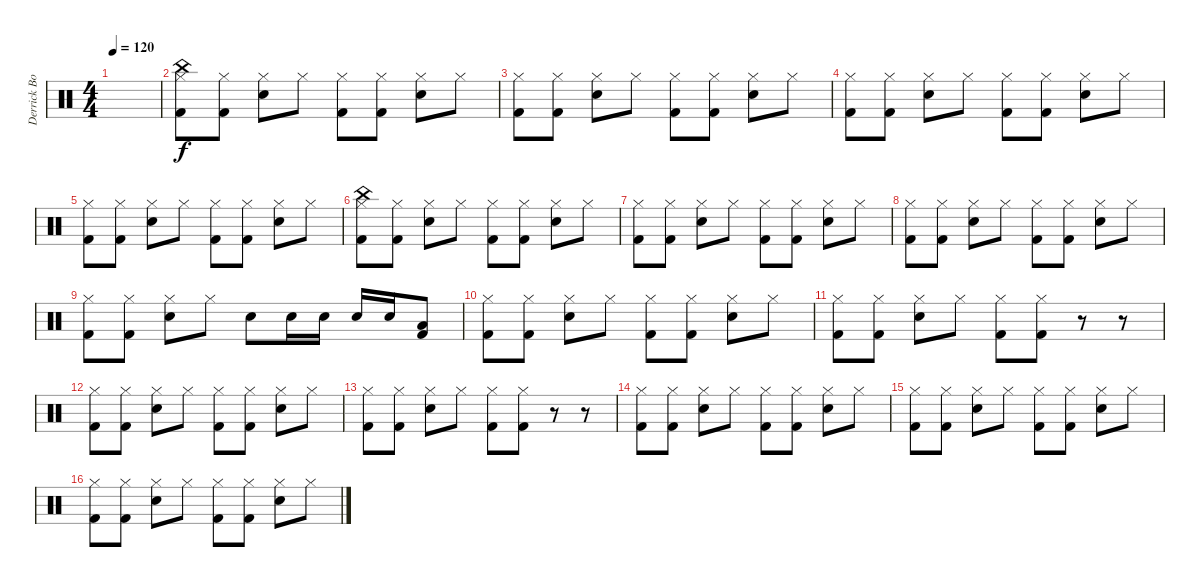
\track ("Derrick Bostrom" "Derrick Bo") {instrument percussion}
\staff {score}
\articulation defaults
\ts (4 4)
\tempo 120
\clef neutral
\ks c
|
("Hi-Hat (closed)" "China (hit)" "Kick (hit) 2").8 ("Hi-Hat (closed)" "Kick (hit) 2").8 ("Hi-Hat (closed)" "Snare (hit) 2").8 "Hi-Hat (closed)".8 ("Hi-Hat (closed)" "Kick (hit) 2").8 ("Hi-Hat (closed)" "Kick (hit) 2").8 ("Hi-Hat (closed)" "Snare (hit) 2").8 "Hi-Hat (closed)".8 |
("Hi-Hat (closed)" "Kick (hit) 2").8 ("Hi-Hat (closed)" "Kick (hit) 2").8 ("Hi-Hat (closed)" "Snare (hit) 2").8 "Hi-Hat (closed)".8 ("Hi-Hat (closed)" "Kick (hit) 2").8 ("Hi-Hat (closed)" "Kick (hit) 2").8 ("Hi-Hat (closed)" "Snare (hit) 2").8 "Hi-Hat (closed)".8 |
("Hi-Hat (closed)" "Kick (hit) 2").8 ("Hi-Hat (closed)" "Kick (hit) 2").8 ("Hi-Hat (closed)" "Snare (hit) 2").8 "Hi-Hat (closed)".8 ("Hi-Hat (closed)" "Kick (hit) 2").8 ("Hi-Hat (closed)" "Kick (hit) 2").8 ("Hi-Hat (closed)" "Snare (hit) 2").8 "Hi-Hat (closed)".8 |
("Hi-Hat (closed)" "Kick (hit) 2").8 ("Hi-Hat (closed)" "Kick (hit) 2").8 ("Hi-Hat (closed)" "Snare (hit) 2").8 "Hi-Hat (closed)".8 ("Hi-Hat (closed)" "Kick (hit) 2").8 ("Hi-Hat (closed)" "Kick (hit) 2").8 ("Hi-Hat (closed)" "Snare (hit) 2").8 "Hi-Hat (closed)".8 |
("Hi-Hat (closed)" "China (hit)" "Kick (hit) 2").8 ("Hi-Hat (closed)" "Kick (hit) 2").8 ("Hi-Hat (closed)" "Snare (hit) 2").8 "Hi-Hat (closed)".8 ("Hi-Hat (closed)" "Kick (hit) 2").8 ("Hi-Hat (closed)" "Kick (hit) 2").8 ("Hi-Hat (closed)" "Snare (hit) 2").8 "Hi-Hat (closed)".8 |
("Hi-Hat (closed)" "Kick (hit) 2").8 ("Hi-Hat (closed)" "Kick (hit) 2").8 ("Hi-Hat (closed)" "Snare (hit) 2").8 "Hi-Hat (closed)".8 ("Hi-Hat (closed)" "Kick (hit) 2").8 ("Hi-Hat (closed)" "Kick (hit) 2").8 ("Hi-Hat (closed)" "Snare (hit) 2").8 "Hi-Hat (closed)".8 |
("Hi-Hat (closed)" "Kick (hit) 2").8 ("Hi-Hat (closed)" "Kick (hit) 2").8 ("Hi-Hat (closed)" "Snare (hit) 2").8 "Hi-Hat (closed)".8 ("Hi-Hat (closed)" "Kick (hit) 2").8 ("Hi-Hat (closed)" "Kick (hit) 2").8 ("Hi-Hat (closed)" "Snare (hit) 2").8 "Hi-Hat (closed)".8 |
("Hi-Hat (closed)" "Kick (hit) 2").8 ("Hi-Hat (closed)" "Kick (hit) 2").8 ("Hi-Hat (closed)" "Snare (hit) 2").8 "Hi-Hat (closed)".8 "Snare (hit) 2".8 "Snare (hit) 2".16 "Snare (hit) 2".16 "Snare (hit) 2".16 "Snare (hit) 2".16 ("Low Tom (hit)" "Kick (hit) 2").8 |
("Hi-Hat (closed)" "Kick (hit) 2").8 ("Hi-Hat (closed)" "Kick (hit) 2").8 ("Hi-Hat (closed)" "Snare (hit) 2").8 "Hi-Hat (closed)".8 ("Hi-Hat (closed)" "Kick (hit) 2").8 ("Hi-Hat (closed)" "Kick (hit) 2").8 ("Hi-Hat (closed)" "Snare (hit) 2").8 "Hi-Hat (closed)".8 |
("Hi-Hat (closed)" "Kick (hit) 2").8 ("Hi-Hat (closed)" "Kick (hit) 2").8 ("Hi-Hat (closed)" "Snare (hit) 2").8 "Hi-Hat (closed)".8 ("Hi-Hat (closed)" "Kick (hit) 2").8 ("Hi-Hat (closed)" "Kick (hit) 2").8 r.8 r.8 |
("Hi-Hat (closed)" "Kick (hit) 2").8 ("Hi-Hat (closed)" "Kick (hit) 2").8 ("Hi-Hat (closed)" "Snare (hit) 2").8 "Hi-Hat (closed)".8 ("Hi-Hat (closed)" "Kick (hit) 2").8 ("Hi-Hat (closed)" "Kick (hit) 2").8 ("Hi-Hat (closed)" "Snare (hit) 2").8 "Hi-Hat (closed)".8 |
("Hi-Hat (closed)" "Kick (hit) 2").8 ("Hi-Hat (closed)" "Kick (hit) 2").8 ("Hi-Hat (closed)" "Snare (hit) 2").8 "Hi-Hat (closed)".8 ("Hi-Hat (closed)" "Kick (hit) 2").8 ("Hi-Hat (closed)" "Kick (hit) 2").8 r.8 r.8 |
("Hi-Hat (closed)" "Kick (hit) 2").8 ("Hi-Hat (closed)" "Kick (hit) 2").8 ("Hi-Hat (closed)" "Snare (hit) 2").8 "Hi-Hat (closed)".8 ("Hi-Hat (closed)" "Kick (hit) 2").8 ("Hi-Hat (closed)" "Kick (hit) 2").8 ("Hi-Hat (closed)" "Snare (hit) 2").8 "Hi-Hat (closed)".8 |
("Hi-Hat (closed)" "Kick (hit) 2").8 ("Hi-Hat (closed)" "Kick (hit) 2").8 ("Hi-Hat (closed)" "Snare (hit) 2").8 "Hi-Hat (closed)".8 ("Hi-Hat (closed)" "Kick (hit) 2").8 ("Hi-Hat (closed)" "Kick (hit) 2").8 ("Hi-Hat (closed)" "Snare (hit) 2").8 "Hi-Hat (closed)".8 |
("Hi-Hat (closed)" "Kick (hit) 2").8 ("Hi-Hat (closed)" "Kick (hit) 2").8 ("Hi-Hat (closed)" "Snare (hit) 2").8 "Hi-Hat (closed)".8 ("Hi-Hat (closed)" "Kick (hit) 2").8 ("Hi-Hat (closed)" "Kick (hit) 2").8 ("Hi-Hat (closed)" "Snare (hit) 2").8 "Hi-Hat (closed)".8
